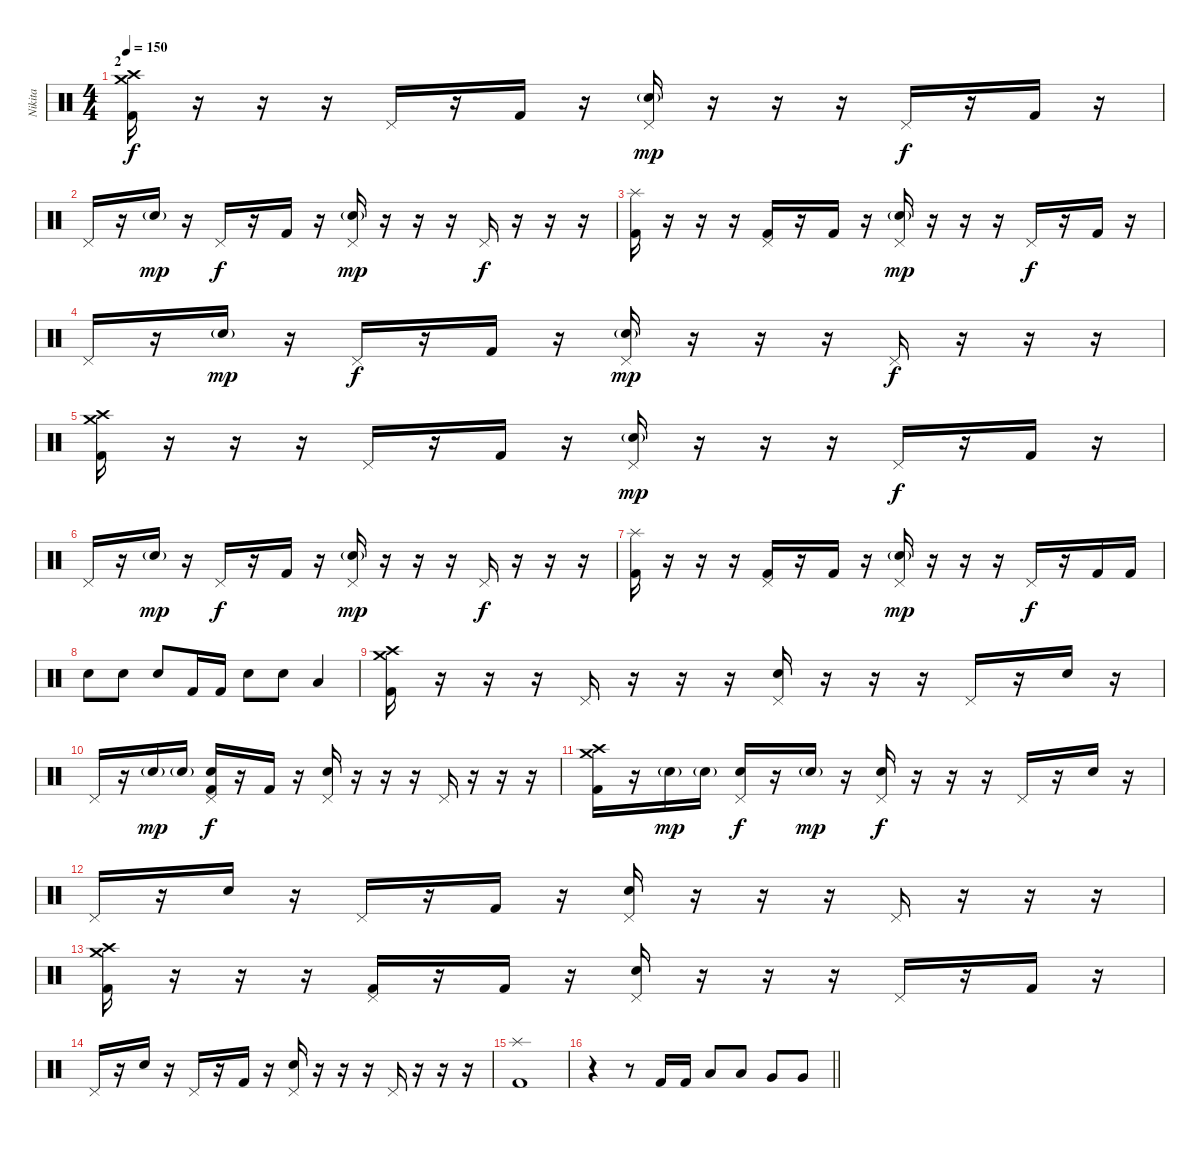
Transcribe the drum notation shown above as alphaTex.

\track ("Nikita" "Nikita") {instrument percussion}
\staff {score}
\articulation defaults
\ts (4 4)
\section ("" "2")
\tempo 150
\clef neutral
\ks c
("Crash high (hit)" "Crash medium (hit)" "Kick (hit) 2").16{dy f} r.16 r.16 r.16 "Pedal Hi-Hat (hit)".16 r.16 "Kick (hit) 2".16 r.16 ("Pedal Hi-Hat (hit)" "Electric Snare (hit)"{g}).16{dy mp} r.16 r.16 r.16 "Pedal Hi-Hat (hit)".16{dy f} r.16 "Kick (hit) 2".16 r.16 |
"Pedal Hi-Hat (hit)".16 r.16 "Electric Snare (hit)"{g}.16{dy mp} r.16 "Pedal Hi-Hat (hit)".16{dy f} r.16 "Kick (hit) 2".16 r.16 ("Pedal Hi-Hat (hit)" "Electric Snare (hit)"{g}).16{dy mp} r.16 r.16 r.16 "Pedal Hi-Hat (hit)".16{dy f} r.16 r.16 r.16 |
("Splash (hit)" "Kick (hit) 2").16 r.16 r.16 r.16 ("Pedal Hi-Hat (hit)" "Kick (hit) 2").16 r.16 "Kick (hit) 2".16 r.16 ("Pedal Hi-Hat (hit)" "Electric Snare (hit)"{g}).16{dy mp} r.16 r.16 r.16 "Pedal Hi-Hat (hit)".16{dy f} r.16 "Kick (hit) 2".16 r.16 |
"Pedal Hi-Hat (hit)".16 r.16 "Electric Snare (hit)"{g}.16{dy mp} r.16 "Pedal Hi-Hat (hit)".16{dy f} r.16 "Kick (hit) 2".16 r.16 ("Pedal Hi-Hat (hit)" "Electric Snare (hit)"{g}).16{dy mp} r.16 r.16 r.16 "Pedal Hi-Hat (hit)".16{dy f} r.16 r.16 r.16 |
("Crash high (hit)" "Crash medium (hit)" "Kick (hit) 2").16 r.16 r.16 r.16 "Pedal Hi-Hat (hit)".16 r.16 "Kick (hit) 2".16 r.16 ("Pedal Hi-Hat (hit)" "Electric Snare (hit)"{g}).16{dy mp} r.16 r.16 r.16 "Pedal Hi-Hat (hit)".16{dy f} r.16 "Kick (hit) 2".16 r.16 |
"Pedal Hi-Hat (hit)".16 r.16 "Electric Snare (hit)"{g}.16{dy mp} r.16 "Pedal Hi-Hat (hit)".16{dy f} r.16 "Kick (hit) 2".16 r.16 ("Pedal Hi-Hat (hit)" "Electric Snare (hit)"{g}).16{dy mp} r.16 r.16 r.16 "Pedal Hi-Hat (hit)".16{dy f} r.16 r.16 r.16 |
("Splash (hit)" "Kick (hit) 2").16 r.16 r.16 r.16 ("Pedal Hi-Hat (hit)" "Kick (hit) 2").16 r.16 "Kick (hit) 2".16 r.16 ("Pedal Hi-Hat (hit)" "Electric Snare (hit)"{g}).16{dy mp} r.16 r.16 r.16 "Pedal Hi-Hat (hit)".16{dy f} r.16 "Kick (hit) 2".16 "Kick (hit) 2".16 |
"Electric Snare (hit)".8 "Electric Snare (hit)".8 "Electric Snare (hit)".8 "Kick (hit) 2".16 "Kick (hit) 2".16 "Electric Snare (hit)".8 "Electric Snare (hit)".8 "Low Tom (hit)".4 |
("Crash high (hit)" "Crash medium (hit)" "Kick (hit) 2").16 r.16 r.16 r.16 "Pedal Hi-Hat (hit)".16 r.16 r.16 r.16 ("Pedal Hi-Hat (hit)" "Electric Snare (hit)").16 r.16 r.16 r.16 "Pedal Hi-Hat (hit)".16 r.16 "Electric Snare (hit)".16 r.16 |
"Pedal Hi-Hat (hit)".16 r.16 "Electric Snare (hit)"{g}.16{dy mp} "Electric Snare (hit)"{g}.16 ("Pedal Hi-Hat (hit)" "Electric Snare (hit)" "Kick (hit) 2").16{dy f} r.16 "Kick (hit) 2".16 r.16 ("Pedal Hi-Hat (hit)" "Electric Snare (hit)").16 r.16 r.16 r.16 "Pedal Hi-Hat (hit)".16 r.16 r.16 r.16 |
("Crash high (hit)" "Crash medium (hit)" "Kick (hit) 2").16 r.16 "Electric Snare (hit)"{g}.16{dy mp} "Electric Snare (hit)"{g}.16 ("Pedal Hi-Hat (hit)" "Electric Snare (hit)").16{dy f} r.16 "Electric Snare (hit)"{g}.16{dy mp} r.16 ("Pedal Hi-Hat (hit)" "Electric Snare (hit)").16{dy f} r.16 r.16 r.16 "Pedal Hi-Hat (hit)".16 r.16 "Electric Snare (hit)".16 r.16 |
"Pedal Hi-Hat (hit)".16 r.16 "Electric Snare (hit)".16 r.16 "Pedal Hi-Hat (hit)".16 r.16 "Kick (hit) 2".16 r.16 ("Pedal Hi-Hat (hit)" "Electric Snare (hit)").16 r.16 r.16 r.16 "Pedal Hi-Hat (hit)".16 r.16 r.16 r.16 |
("Crash high (hit)" "Crash medium (hit)" "Kick (hit) 2").16 r.16 r.16 r.16 ("Pedal Hi-Hat (hit)" "Kick (hit) 2").16 r.16 "Kick (hit) 2".16 r.16 ("Pedal Hi-Hat (hit)" "Electric Snare (hit)").16 r.16 r.16 r.16 "Pedal Hi-Hat (hit)".16 r.16 "Kick (hit) 2".16 r.16 |
"Pedal Hi-Hat (hit)".16 r.16 "Electric Snare (hit)".16 r.16 "Pedal Hi-Hat (hit)".16 r.16 "Kick (hit) 2".16 r.16 ("Pedal Hi-Hat (hit)" "Electric Snare (hit)").16 r.16 r.16 r.16 "Pedal Hi-Hat (hit)".16 r.16 r.16 r.16 |
("Splash (hit)" "Kick (hit) 2").1 |
\barLineRight lightlight
r.4 r.8 "Kick (hit) 2".16 "Kick (hit) 2".16 "Low Tom (hit)".8 "Low Tom (hit)".8 "Very Low Tom (hit)".8 "Very Low Tom (hit)".8
